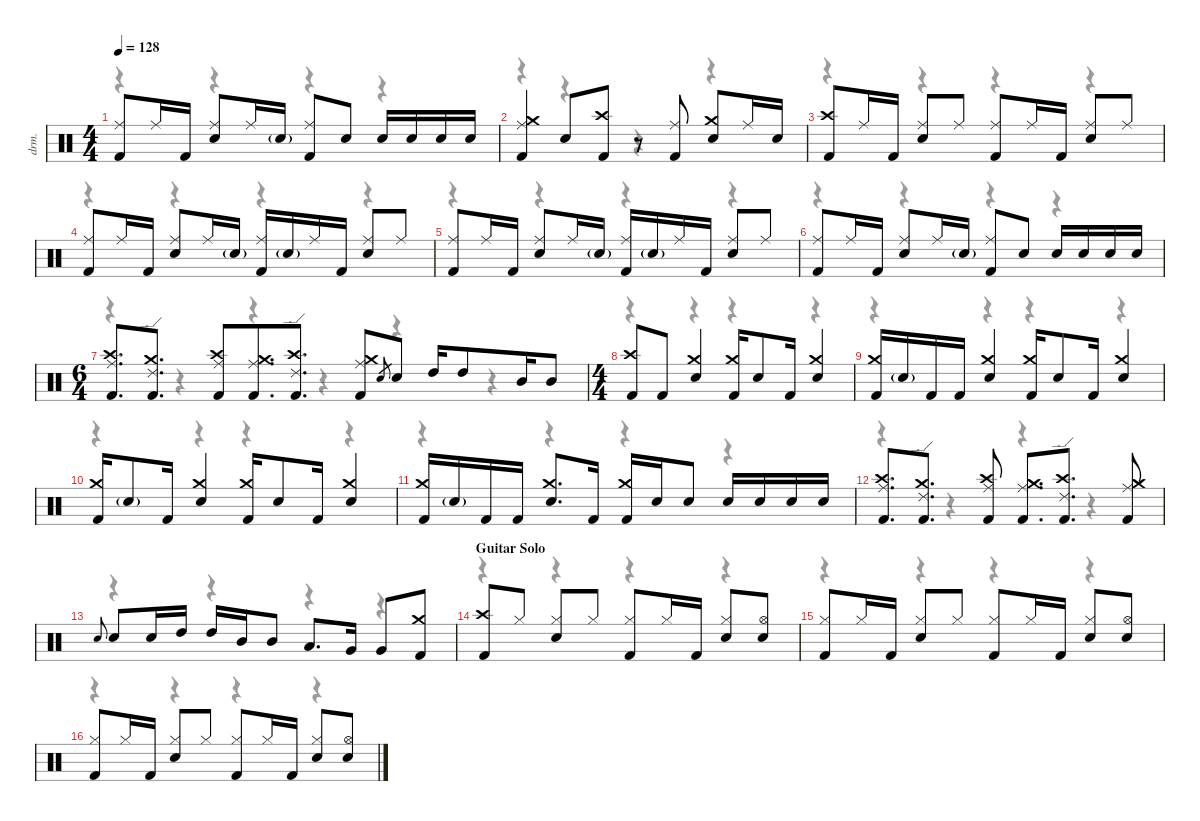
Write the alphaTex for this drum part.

\defaultSystemsLayout 4
\hideDynamics
\bracketExtendMode nobrackets
\track ("Drums" "drm.") {instrument percussion}
\staff {score}
\articulation defaults
\voice
\ts (4 4)
\tempo 128
\clef neutral
\ks c
("Kick (hit) 2" "Ride (middle)").8{dy fff} "Ride (middle)".16{dy mp} "Kick (hit) 2".16{dy fff} ("Snare (hit) 2" "Ride (middle)").8 "Ride (middle)".16{dy mp} "Snare (hit) 2"{g}.16{dy mf} ("Kick (hit) 2" "Ride (middle)").8{dy fff} "Snare (hit) 2".8 "Snare (hit) 2".16 "Snare (hit) 2".16 "Snare (hit) 2".16 "Snare (hit) 2".16 |
("Kick (hit) 2" "Ride (middle)" "Crash medium (hit)").4 "Snare (hit) 2".8 ("Kick (hit) 2" "Crash high (hit)").8 r.8 ("Kick (hit) 2" "Ride (middle)").8 ("Snare (hit) 2" "Crash medium (hit)").8 "Ride (middle)".16{dy mp} "Snare (hit) 2".16{dy ff} |
("Kick (hit) 2" "Crash high (hit)").8{dy fff} "Ride (middle)".16{dy mp} "Kick (hit) 2".16{dy fff} ("Snare (hit) 2" "Ride (middle)").8 "Ride (middle)".8{dy mp} ("Kick (hit) 2" "Ride (middle)").8{dy fff} "Ride (middle)".16{dy mp} "Kick (hit) 2".16{dy fff} ("Snare (hit) 2" "Ride (middle)").8 "Ride (middle)".8{dy mp} |
("Kick (hit) 2" "Ride (middle)").8{dy fff} "Ride (middle)".16{dy mp} "Kick (hit) 2".16{dy fff} ("Snare (hit) 2" "Ride (middle)").8 "Ride (middle)".16{dy mp} "Snare (hit) 2"{g}.16{dy mf} ("Kick (hit) 2" "Ride (middle)").16{dy fff} "Snare (hit) 2"{g}.16{dy mf} "Ride (middle)".16{dy mp} "Kick (hit) 2".16{dy fff} ("Snare (hit) 2" "Ride (middle)").8 "Ride (middle)".8{dy mp} |
("Kick (hit) 2" "Ride (middle)").8{dy fff} "Ride (middle)".16{dy mp} "Kick (hit) 2".16{dy fff} ("Snare (hit) 2" "Ride (middle)").8 "Ride (middle)".16{dy mp} "Snare (hit) 2"{g}.16{dy mf} ("Kick (hit) 2" "Ride (middle)").16{dy fff} "Snare (hit) 2"{g}.16{dy mf} "Ride (middle)".16{dy mp} "Kick (hit) 2".16{dy fff} ("Snare (hit) 2" "Ride (middle)").8 "Ride (middle)".8{dy mp} |
("Kick (hit) 2" "Ride (middle)").8{dy fff} "Ride (middle)".16{dy mp} "Kick (hit) 2".16{dy fff} ("Snare (hit) 2" "Ride (middle)").8 "Ride (middle)".16{dy mp} "Snare (hit) 2"{g}.16{dy mf} ("Kick (hit) 2" "Ride (middle)").8{dy fff} "Snare (hit) 2".8 "Snare (hit) 2".16 "Snare (hit) 2".16 "Snare (hit) 2".16 "Snare (hit) 2".16 |
\ts (6 4)
\beaming (8 3 3 3 3)
("Kick (hit) 2" "Ride (middle)" "Crash high (hit)").8{d} ("Kick (hit) 2" "Ride (edge) 2" "Crash medium (hit)").8{d} ("Kick (hit) 2" "Ride (middle)" "Crash high (hit)").8 ("Kick (hit) 2" "Ride (middle)" "Crash medium (hit)").8{d} ("Kick (hit) 2" "Ride (edge) 2" "Crash high (hit)").8{d} ("Kick (hit) 2" "Ride (middle)" "Crash medium (hit)").8 "Electric Snare (hit)".8{gr dy ff} "Snare (hit) 2".8{dy fff} "High Tom (hit)".16 "High Tom (hit)".8 "Mid Tom (hit)".16 "Mid Tom (hit)".8 |
\ts (4 4)
\beaming (8 2 2 2 2)
("Kick (hit) 2" "Crash high (hit)").8 "Kick (hit) 2".8 ("Snare (hit) 2" "Crash medium (hit)").4 ("Kick (hit) 2" "Crash medium (hit)").16 "Snare (hit) 2".8 "Kick (hit) 2".16 ("Snare (hit) 2" "Crash medium (hit)").4 |
("Kick (hit) 2" "Crash medium (hit)").16 "Snare (hit) 2"{g}.16{dy mf} "Kick (hit) 2".16{dy fff} "Kick (hit) 2".16 ("Snare (hit) 2" "Crash medium (hit)").4 ("Kick (hit) 2" "Crash medium (hit)").16 "Snare (hit) 2".8 "Kick (hit) 2".16 ("Snare (hit) 2" "Crash medium (hit)").4 |
("Kick (hit) 2" "Crash medium (hit)").16 "Snare (hit) 2"{g}.8{dy mf} "Kick (hit) 2".16{dy fff} ("Snare (hit) 2" "Crash medium (hit)").4 ("Kick (hit) 2" "Crash medium (hit)").16 "Snare (hit) 2".8 "Kick (hit) 2".16 ("Snare (hit) 2" "Crash medium (hit)").4 |
("Kick (hit) 2" "Crash medium (hit)").16 "Snare (hit) 2"{g}.16{dy mf} "Kick (hit) 2".16{dy fff} "Kick (hit) 2".16 ("Snare (hit) 2" "Crash medium (hit)").8{d} "Kick (hit) 2".16 ("Kick (hit) 2" "Crash medium (hit)").16 "Snare (hit) 2".16 "Snare (hit) 2".8 "Snare (hit) 2".16 "Snare (hit) 2".16 "Snare (hit) 2".16 "Snare (hit) 2".16 |
("Kick (hit) 2" "Ride (middle)" "Crash high (hit)").8{d} ("Kick (hit) 2" "Ride (edge) 2" "Crash medium (hit)").8{d} ("Kick (hit) 2" "Ride (middle)" "Crash high (hit)").8 ("Kick (hit) 2" "Ride (middle)" "Crash medium (hit)").8{d} ("Kick (hit) 2" "Ride (edge) 2" "Crash high (hit)").8{d} ("Kick (hit) 2" "Ride (middle)" "Crash medium (hit)").8 |
"Electric Snare (hit)".8{gr onbeat dy ff} "Snare (hit) 2".8{dy fff} "Snare (hit) 2".16 "High Tom (hit)".16 "High Tom (hit)".16 "Mid Tom (hit)".16 "Mid Tom (hit)".8 "Low Tom (hit)".8{d} "Very Low Tom (hit)".16 "Very Low Tom (hit)".8 ("Kick (hit) 2" "Crash medium (hit)").8 |
\section ("" "Guitar Solo")
("Kick (hit) 2" "Crash high (hit)").8 "Hi-Hat (closed)".8{dy p} ("Snare (hit) 2" "Hi-Hat (closed)").8{dy fff} "Hi-Hat (closed)".8{dy p} ("Kick (hit) 2" "Hi-Hat (closed)").8{dy fff} "Hi-Hat (closed)".16{dy p} "Kick (hit) 2".16{dy fff} ("Snare (hit) 2" "Hi-Hat (closed)").8 ("Snare (hit) 2" "Hi-Hat (open)").8 |
("Kick (hit) 2" "Hi-Hat (closed)").8 "Hi-Hat (closed)".16{dy p} "Kick (hit) 2".16{dy fff} ("Snare (hit) 2" "Hi-Hat (closed)").8 "Hi-Hat (closed)".8{dy p} ("Kick (hit) 2" "Hi-Hat (closed)").8{dy fff} "Hi-Hat (closed)".16{dy p} "Kick (hit) 2".16{dy fff} ("Snare (hit) 2" "Hi-Hat (closed)").8 ("Snare (hit) 2" "Hi-Hat (open)").8 |
("Kick (hit) 2" "Hi-Hat (closed)").8 "Hi-Hat (closed)".16{dy p} "Kick (hit) 2".16{dy fff} ("Snare (hit) 2" "Hi-Hat (closed)").8 "Hi-Hat (closed)".8{dy p} ("Kick (hit) 2" "Hi-Hat (closed)").8{dy fff} "Hi-Hat (closed)".16{dy p} "Kick (hit) 2".16{dy fff} ("Snare (hit) 2" "Hi-Hat (closed)").8 ("Snare (hit) 2" "Hi-Hat (open)").8
\voice
\clef neutral
\ottava regular
\simile none
\ks c
r.4{dy mf} r.4 r.4 r.4 |
r.4 r.4 r.4 r.4 |
r.4 r.4 r.4 r.4 |
r.4 r.4 r.4 r.4 |
r.4 r.4 r.4 r.4 |
r.4 r.4 r.4 r.4 |
r.4 r.4 r.4 r.4 r.4 r.4 |
r.4 r.4 r.4 r.4 |
r.4 r.4 r.4 r.4 |
r.4 r.4 r.4 r.4 |
r.4 r.4 r.4 r.4 |
r.4 r.4 r.4 r.4 |
r.4 r.4 r.4 r.4 |
r.4 r.4 r.4 r.4 |
r.4 r.4 r.4 r.4 |
r.4 r.4 r.4 r.4
